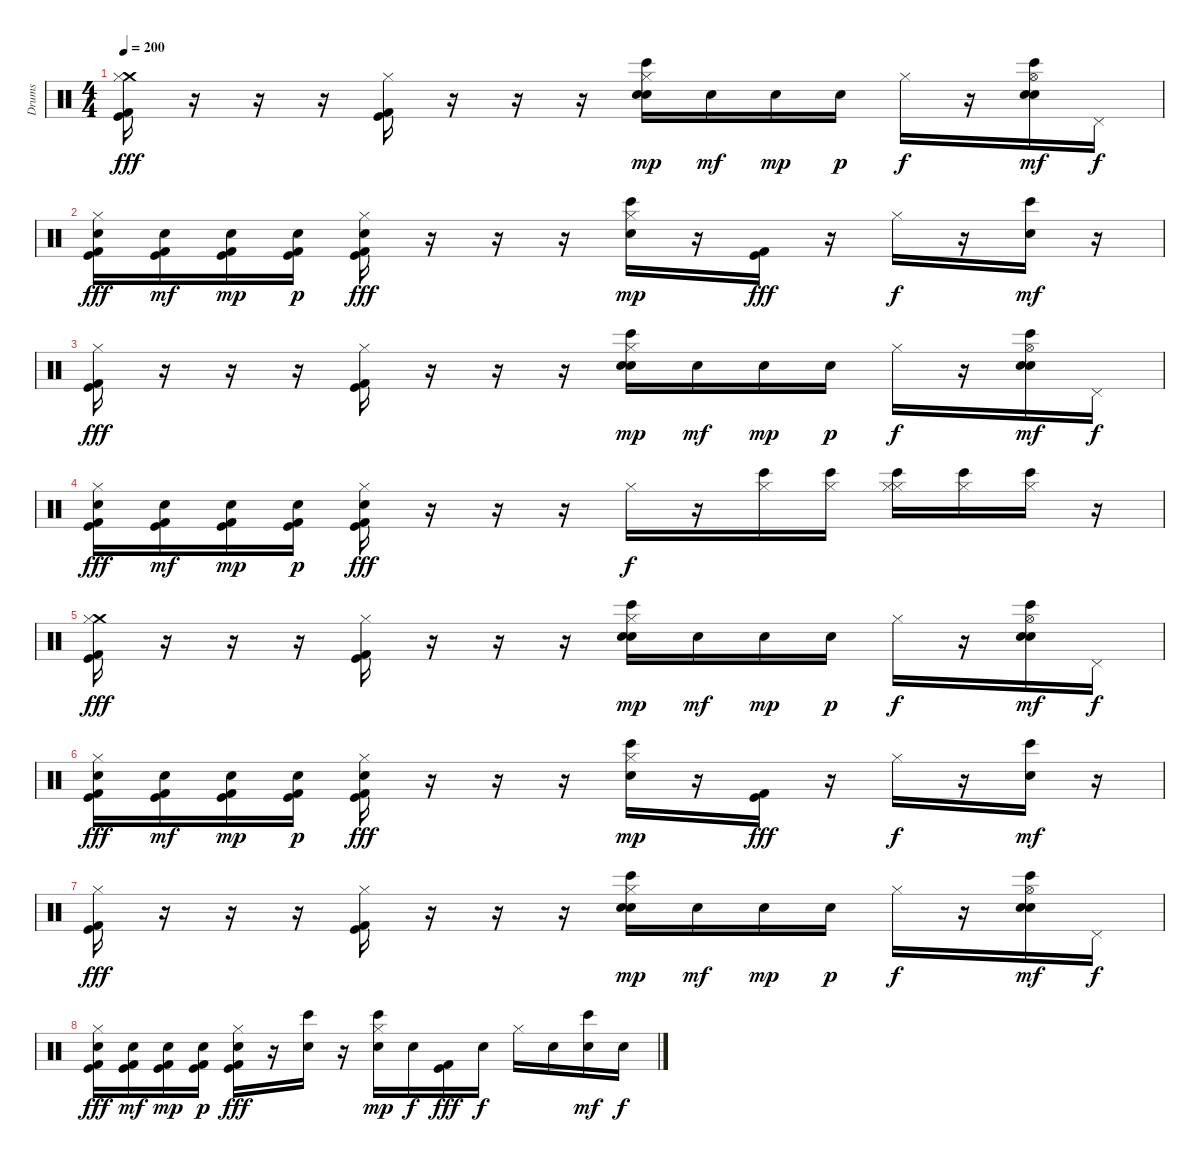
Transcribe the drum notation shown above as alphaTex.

\track ("Drums" "Drums") {instrument percussion}
\staff {score}
\articulation defaults
\ts (4 4)
\tempo 200
\clef neutral
\ks c
("Crash medium (hit)" "Hi-Hat (closed)" "Kick (hit)" "Kick (hit) 2").16{dy fff} r.16 r.16 r.16 ("Hi-Hat (closed)" "Kick (hit)" "Kick (hit) 2").16 r.16 r.16 r.16 ("Hi-Hat (closed)" "Bongo High (hit)" "Snare (hit) 2" "Electric Snare (hit)").16{dy mp} "Electric Snare (hit)".16{dy mf} "Electric Snare (hit)".16{dy mp} "Electric Snare (hit)".16{dy p} "Hi-Hat (closed)".16{dy f} r.16 ("Hi-Hat (open)" "Bongo High (hit)" "Snare (hit) 2" "Electric Snare (hit)").16{dy mf} "Pedal Hi-Hat (hit)".16{dy f} |
("Hi-Hat (closed)" "Metronome (bell)" "Kick (hit)" "Kick (hit) 2").16{dy fff} ("Metronome (bell)" "Kick (hit)" "Kick (hit) 2").16{dy mf} ("Metronome (bell)" "Kick (hit)" "Kick (hit) 2").16{dy mp} ("Metronome (bell)" "Kick (hit)" "Kick (hit) 2").16{dy p} ("Hi-Hat (closed)" "Metronome (bell)" "Kick (hit)" "Kick (hit) 2").16{dy fff} r.16 r.16 r.16 ("Hi-Hat (closed)" "Bongo High (hit)" "Electric Snare (hit)").16{dy mp} r.16 ("Kick (hit)" "Kick (hit) 2").16{dy fff} r.16 "Hi-Hat (closed)".16{dy f} r.16 ("Bongo High (hit)" "Electric Snare (hit)").16{dy mf} r.16 |
("Hi-Hat (closed)" "Kick (hit)" "Kick (hit) 2").16{dy fff} r.16 r.16 r.16 ("Hi-Hat (closed)" "Kick (hit)" "Kick (hit) 2").16 r.16 r.16 r.16 ("Hi-Hat (closed)" "Bongo High (hit)" "Snare (hit) 2" "Electric Snare (hit)").16{dy mp} "Electric Snare (hit)".16{dy mf} "Electric Snare (hit)".16{dy mp} "Electric Snare (hit)".16{dy p} "Hi-Hat (closed)".16{dy f} r.16 ("Hi-Hat (open)" "Bongo High (hit)" "Snare (hit) 2" "Electric Snare (hit)").16{dy mf} "Pedal Hi-Hat (hit)".16{dy f} |
("Hi-Hat (closed)" "Metronome (bell)" "Kick (hit)" "Kick (hit) 2").16{dy fff} ("Metronome (bell)" "Kick (hit)" "Kick (hit) 2").16{dy mf} ("Metronome (bell)" "Kick (hit)" "Kick (hit) 2").16{dy mp} ("Metronome (bell)" "Kick (hit)" "Kick (hit) 2").16{dy p} ("Hi-Hat (closed)" "Metronome (bell)" "Kick (hit)" "Kick (hit) 2").16{dy fff} r.16 r.16 r.16 "Hi-Hat (closed)".16{dy f} r.16 ("Bongo High (hit)" "Hi-Hat (closed)").16 ("Bongo High (hit)" "Hi-Hat (closed)").16 ("Hi-Hat (closed)" "Hi-Hat (closed)" "Bongo High (hit)").16 ("Hi-Hat (closed)" "Bongo High (hit)").16 ("Hi-Hat (closed)" "Bongo High (hit)").16 r.16 |
("Crash medium (hit)" "Hi-Hat (closed)" "Kick (hit)" "Kick (hit) 2").16{dy fff} r.16 r.16 r.16 ("Hi-Hat (closed)" "Kick (hit)" "Kick (hit) 2").16 r.16 r.16 r.16 ("Hi-Hat (closed)" "Bongo High (hit)" "Snare (hit) 2" "Electric Snare (hit)").16{dy mp} "Electric Snare (hit)".16{dy mf} "Electric Snare (hit)".16{dy mp} "Electric Snare (hit)".16{dy p} "Hi-Hat (closed)".16{dy f} r.16 ("Hi-Hat (open)" "Bongo High (hit)" "Snare (hit) 2" "Electric Snare (hit)").16{dy mf} "Pedal Hi-Hat (hit)".16{dy f} |
("Hi-Hat (closed)" "Metronome (bell)" "Kick (hit)" "Kick (hit) 2").16{dy fff} ("Metronome (bell)" "Kick (hit)" "Kick (hit) 2").16{dy mf} ("Metronome (bell)" "Kick (hit)" "Kick (hit) 2").16{dy mp} ("Metronome (bell)" "Kick (hit)" "Kick (hit) 2").16{dy p} ("Hi-Hat (closed)" "Metronome (bell)" "Kick (hit)" "Kick (hit) 2").16{dy fff} r.16 r.16 r.16 ("Hi-Hat (closed)" "Bongo High (hit)" "Electric Snare (hit)").16{dy mp} r.16 ("Kick (hit)" "Kick (hit) 2").16{dy fff} r.16 "Hi-Hat (closed)".16{dy f} r.16 ("Bongo High (hit)" "Electric Snare (hit)").16{dy mf} r.16 |
("Hi-Hat (closed)" "Kick (hit)" "Kick (hit) 2").16{dy fff} r.16 r.16 r.16 ("Hi-Hat (closed)" "Kick (hit)" "Kick (hit) 2").16 r.16 r.16 r.16 ("Hi-Hat (closed)" "Bongo High (hit)" "Snare (hit) 2" "Electric Snare (hit)").16{dy mp} "Electric Snare (hit)".16{dy mf} "Electric Snare (hit)".16{dy mp} "Electric Snare (hit)".16{dy p} "Hi-Hat (closed)".16{dy f} r.16 ("Hi-Hat (open)" "Bongo High (hit)" "Snare (hit) 2" "Electric Snare (hit)").16{dy mf} "Pedal Hi-Hat (hit)".16{dy f} |
("Hi-Hat (closed)" "Metronome (bell)" "Kick (hit)" "Kick (hit) 2").16{dy fff} ("Metronome (bell)" "Kick (hit)" "Kick (hit) 2").16{dy mf} ("Metronome (bell)" "Kick (hit)" "Kick (hit) 2").16{dy mp} ("Metronome (bell)" "Kick (hit)" "Kick (hit) 2").16{dy p} ("Hi-Hat (closed)" "Metronome (bell)" "Kick (hit)" "Kick (hit) 2").16{dy fff} r.16 ("Bongo High (hit)" "Electric Snare (hit)").16 r.16 ("Hi-Hat (closed)" "Bongo High (hit)" "Electric Snare (hit)").16{dy mp} "Metronome (bell)".16{dy f} ("Kick (hit)" "Kick (hit) 2").16{dy fff} "Metronome (bell)".16{dy f} "Hi-Hat (closed)".16 "Metronome (bell)".16 ("Bongo High (hit)" "Electric Snare (hit)").16{dy mf} "Metronome (bell)".16{dy f}
